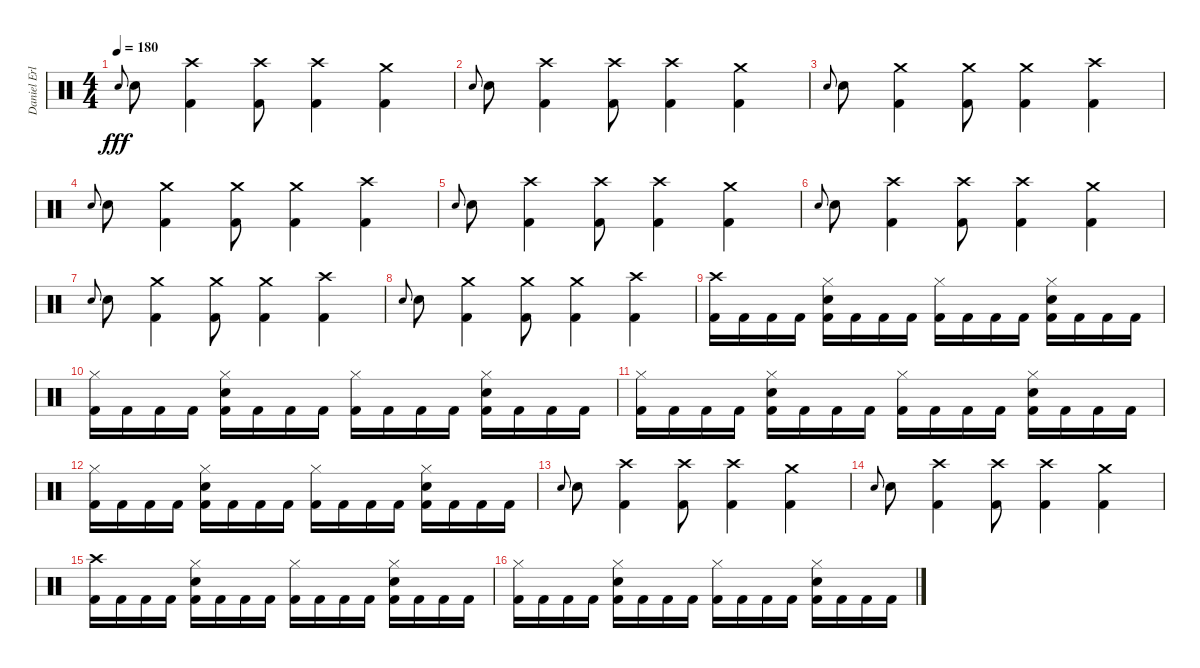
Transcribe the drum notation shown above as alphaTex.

\track ("Daniel Erlandsson" "Daniel Erl") {instrument percussion}
\staff {score}
\articulation defaults
\ts (4 4)
\tempo 180
\clef neutral
\ks c "Electric Snare (hit)".8{gr onbeat dy fff} "Electric Snare (hit)".8
("Crash high (hit)" "Kick (hit) 2").4 ("Crash high (hit)" "Kick (hit) 2").8 ("Crash high (hit)" "Kick (hit) 2").4 ("Crash medium (hit)" "Kick (hit) 2").4 |
"Electric Snare (hit)".8{gr onbeat} "Electric Snare (hit)".8 ("Crash high (hit)" "Kick (hit) 2").4 ("Crash high (hit)" "Kick (hit) 2").8 ("Crash high (hit)" "Kick (hit) 2").4 ("Crash medium (hit)" "Kick (hit) 2").4 |
"Electric Snare (hit)".8{gr onbeat} "Electric Snare (hit)".8 ("Crash medium (hit)" "Kick (hit) 2").4 ("Crash medium (hit)" "Kick (hit) 2").8 ("Crash medium (hit)" "Kick (hit) 2").4 ("Crash high (hit)" "Kick (hit) 2").4 |
"Electric Snare (hit)".8{gr onbeat} "Electric Snare (hit)".8 ("Crash medium (hit)" "Kick (hit) 2").4 ("Crash medium (hit)" "Kick (hit) 2").8 ("Crash medium (hit)" "Kick (hit) 2").4 ("Crash high (hit)" "Kick (hit) 2").4 |
"Electric Snare (hit)".8{gr onbeat} "Electric Snare (hit)".8 ("Crash high (hit)" "Kick (hit) 2").4 ("Crash high (hit)" "Kick (hit) 2").8 ("Crash high (hit)" "Kick (hit) 2").4 ("Crash medium (hit)" "Kick (hit) 2").4 |
"Electric Snare (hit)".8{gr onbeat} "Electric Snare (hit)".8 ("Crash high (hit)" "Kick (hit) 2").4 ("Crash high (hit)" "Kick (hit) 2").8 ("Crash high (hit)" "Kick (hit) 2").4 ("Crash medium (hit)" "Kick (hit) 2").4 |
"Electric Snare (hit)".8{gr onbeat} "Electric Snare (hit)".8 ("Crash medium (hit)" "Kick (hit) 2").4 ("Crash medium (hit)" "Kick (hit) 2").8 ("Crash medium (hit)" "Kick (hit) 2").4 ("Crash high (hit)" "Kick (hit) 2").4 |
"Electric Snare (hit)".8{gr onbeat} "Electric Snare (hit)".8 ("Crash medium (hit)" "Kick (hit) 2").4 ("Crash medium (hit)" "Kick (hit) 2").8 ("Crash medium (hit)" "Kick (hit) 2").4 ("Crash high (hit)" "Kick (hit) 2").4 |
("Crash high (hit)" "Kick (hit) 2").16 "Kick (hit) 2".16 "Kick (hit) 2".16 "Kick (hit) 2".16 ("Hi-Hat (closed)" "Electric Snare (hit)" "Kick (hit) 2").16 "Kick (hit) 2".16 "Kick (hit) 2".16 "Kick (hit) 2".16 ("Hi-Hat (closed)" "Kick (hit) 2").16 "Kick (hit) 2".16 "Kick (hit) 2".16 "Kick (hit) 2".16 ("Hi-Hat (closed)" "Electric Snare (hit)" "Kick (hit) 2").16 "Kick (hit) 2".16 "Kick (hit) 2".16 "Kick (hit) 2".16 |
("Hi-Hat (closed)" "Kick (hit) 2").16 "Kick (hit) 2".16 "Kick (hit) 2".16 "Kick (hit) 2".16 ("Hi-Hat (closed)" "Electric Snare (hit)" "Kick (hit) 2").16 "Kick (hit) 2".16 "Kick (hit) 2".16 "Kick (hit) 2".16 ("Hi-Hat (closed)" "Kick (hit) 2").16 "Kick (hit) 2".16 "Kick (hit) 2".16 "Kick (hit) 2".16 ("Hi-Hat (closed)" "Electric Snare (hit)" "Kick (hit) 2").16 "Kick (hit) 2".16 "Kick (hit) 2".16 "Kick (hit) 2".16 |
("Hi-Hat (closed)" "Kick (hit) 2").16 "Kick (hit) 2".16 "Kick (hit) 2".16 "Kick (hit) 2".16 ("Hi-Hat (closed)" "Electric Snare (hit)" "Kick (hit) 2").16 "Kick (hit) 2".16 "Kick (hit) 2".16 "Kick (hit) 2".16 ("Hi-Hat (closed)" "Kick (hit) 2").16 "Kick (hit) 2".16 "Kick (hit) 2".16 "Kick (hit) 2".16 ("Hi-Hat (closed)" "Electric Snare (hit)" "Kick (hit) 2").16 "Kick (hit) 2".16 "Kick (hit) 2".16 "Kick (hit) 2".16 |
("Hi-Hat (closed)" "Kick (hit) 2").16 "Kick (hit) 2".16 "Kick (hit) 2".16 "Kick (hit) 2".16 ("Hi-Hat (closed)" "Electric Snare (hit)" "Kick (hit) 2").16 "Kick (hit) 2".16 "Kick (hit) 2".16 "Kick (hit) 2".16 ("Hi-Hat (closed)" "Kick (hit) 2").16 "Kick (hit) 2".16 "Kick (hit) 2".16 "Kick (hit) 2".16 ("Hi-Hat (closed)" "Electric Snare (hit)" "Kick (hit) 2").16 "Kick (hit) 2".16 "Kick (hit) 2".16 "Kick (hit) 2".16 |
"Electric Snare (hit)".8{gr onbeat} "Electric Snare (hit)".8 ("Crash high (hit)" "Kick (hit) 2").4 ("Crash high (hit)" "Kick (hit) 2").8 ("Crash high (hit)" "Kick (hit) 2").4 ("Crash medium (hit)" "Kick (hit) 2").4 |
"Electric Snare (hit)".8{gr onbeat} "Electric Snare (hit)".8 ("Crash high (hit)" "Kick (hit) 2").4 ("Crash high (hit)" "Kick (hit) 2").8 ("Crash high (hit)" "Kick (hit) 2").4 ("Crash medium (hit)" "Kick (hit) 2").4 |
("Crash high (hit)" "Kick (hit) 2").16 "Kick (hit) 2".16 "Kick (hit) 2".16 "Kick (hit) 2".16 ("Hi-Hat (closed)" "Electric Snare (hit)" "Kick (hit) 2").16 "Kick (hit) 2".16 "Kick (hit) 2".16 "Kick (hit) 2".16 ("Hi-Hat (closed)" "Kick (hit) 2").16 "Kick (hit) 2".16 "Kick (hit) 2".16 "Kick (hit) 2".16 ("Hi-Hat (closed)" "Electric Snare (hit)" "Kick (hit) 2").16 "Kick (hit) 2".16 "Kick (hit) 2".16 "Kick (hit) 2".16 |
("Hi-Hat (closed)" "Kick (hit) 2").16 "Kick (hit) 2".16 "Kick (hit) 2".16 "Kick (hit) 2".16 ("Hi-Hat (closed)" "Electric Snare (hit)" "Kick (hit) 2").16 "Kick (hit) 2".16 "Kick (hit) 2".16 "Kick (hit) 2".16 ("Hi-Hat (closed)" "Kick (hit) 2").16 "Kick (hit) 2".16 "Kick (hit) 2".16 "Kick (hit) 2".16 ("Hi-Hat (closed)" "Electric Snare (hit)" "Kick (hit) 2").16 "Kick (hit) 2".16 "Kick (hit) 2".16 "Kick (hit) 2".16
